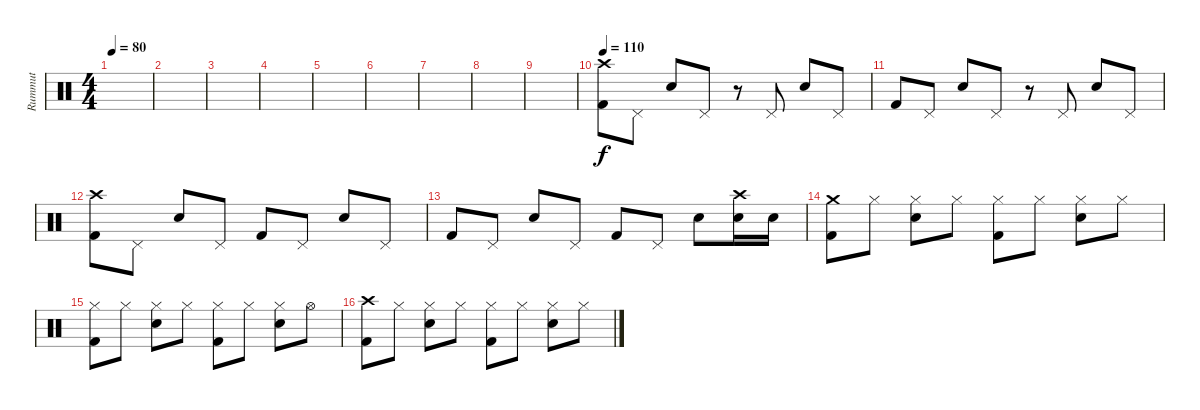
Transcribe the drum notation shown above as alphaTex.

\track ("Rummut" "Rummut") {instrument percussion}
\staff {score}
\articulation defaults
\ts (4 4)
\tempo 80
\clef neutral
\ks c
|
|
|
|
|
|
|
|
|
\tempo 110
("Crash high (hit)" "Kick (hit) 2").8 "Pedal Hi-Hat (hit)".8 "Snare (hit) 2".8 "Pedal Hi-Hat (hit)".8 r.8 "Pedal Hi-Hat (hit)".8 "Snare (hit) 2".8 "Pedal Hi-Hat (hit)".8 |
"Kick (hit) 2".8 "Pedal Hi-Hat (hit)".8 "Snare (hit) 2".8 "Pedal Hi-Hat (hit)".8 r.8 "Pedal Hi-Hat (hit)".8 "Snare (hit) 2".8 "Pedal Hi-Hat (hit)".8 |
("Crash high (hit)" "Kick (hit) 2").8 "Pedal Hi-Hat (hit)".8 "Snare (hit) 2".8 "Pedal Hi-Hat (hit)".8 "Kick (hit) 2".8 "Pedal Hi-Hat (hit)".8 "Snare (hit) 2".8 "Pedal Hi-Hat (hit)".8 |
"Kick (hit) 2".8 "Pedal Hi-Hat (hit)".8 "Snare (hit) 2".8 "Pedal Hi-Hat (hit)".8 "Kick (hit) 2".8 "Pedal Hi-Hat (hit)".8 "Snare (hit) 2".8 ("Crash high (hit)" "Snare (hit) 2").16 "Snare (hit) 2".16 |
("Crash medium (hit)" "Kick (hit) 2").8 "Hi-Hat (closed)".8 ("Hi-Hat (closed)" "Snare (hit) 2").8 "Hi-Hat (closed)".8 ("Hi-Hat (closed)" "Kick (hit) 2").8 "Hi-Hat (closed)".8 ("Hi-Hat (closed)" "Snare (hit) 2").8 "Hi-Hat (closed)".8 |
("Hi-Hat (closed)" "Kick (hit) 2").8 "Hi-Hat (closed)".8 ("Hi-Hat (closed)" "Snare (hit) 2").8 "Hi-Hat (closed)".8 ("Hi-Hat (closed)" "Kick (hit) 2").8 "Hi-Hat (closed)".8 ("Hi-Hat (closed)" "Snare (hit) 2").8 "Hi-Hat (open)".8 |
("Crash high (hit)" "Kick (hit) 2").8 "Hi-Hat (closed)".8 ("Hi-Hat (closed)" "Snare (hit) 2").8 "Hi-Hat (closed)".8 ("Hi-Hat (closed)" "Kick (hit) 2").8 "Hi-Hat (closed)".8 ("Hi-Hat (closed)" "Snare (hit) 2").8 "Hi-Hat (closed)".8
